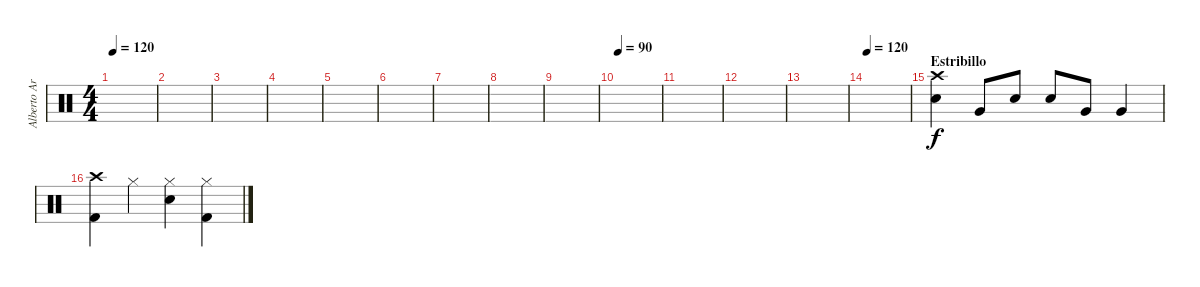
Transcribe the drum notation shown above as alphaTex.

\track ("Alberto Ardines (Batería)" "Alberto Ar") {instrument percussion}
\staff {score}
\articulation defaults
\ts (4 4)
\tempo 120
\clef neutral
\ks c
|
|
|
|
|
|
|
|
|
\tempo 90
|
|
|
|
\tempo 120
|
\section ("" "Estribillo")
("Electric Snare (hit)" "Crash high (hit)").4 "Very Low Tom (hit)".8 "Electric Snare (hit)".8 "Electric Snare (hit)".8 "Very Low Tom (hit)".8 "Very Low Tom (hit)".4 |
("Crash high (hit)" "Kick (hit) 2").4 "Hi-Hat (closed)".4 ("Hi-Hat (closed)" "Electric Snare (hit)").4 ("Hi-Hat (closed)" "Kick (hit) 2").4
